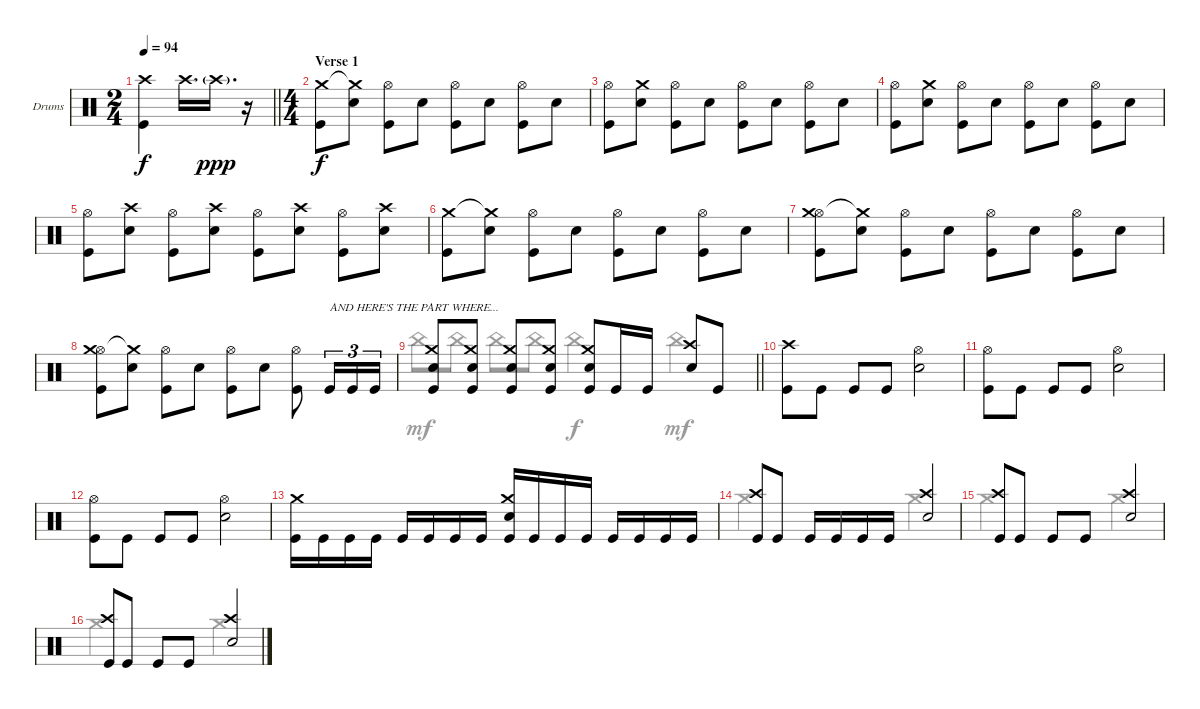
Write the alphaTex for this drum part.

\bracketExtendMode groupsimilarinstruments
\firstSystemTrackNameOrientation horizontal
\otherSystemsTrackNameOrientation horizontal
\track ("Drumkit" "Drums") {instrument percussion}
\staff {score}
\articulation defaults
\voice
\ts (2 4)
\beaming (8 2 2)
\tempo 94
\tempo (193 1 hide)
\clef neutral
\barLineRight lightlight
\ks c
("Crash high (hit)" "Kick (hit)").4{dy f} "Crash high (hit)".16{d} "Crash high (hit)"{g}.16{d dy ppp} r.16 |
\ts (4 4)
\beaming (8 2 2 2 2)
\section ("" "Verse 1")
\tempo (193 hide)
("Crash medium (hit)" "Kick (hit)").8{dy f} ("Crash medium (hit)"{t} "Snare (hit) 2").8 ("Hi-Hat (open)" "Kick (hit)").8 "Snare (hit) 2".8 ("Hi-Hat (open)" "Kick (hit)").8 "Snare (hit) 2".8 ("Hi-Hat (open)" "Kick (hit)").8 "Snare (hit) 2".8 |
("Hi-Hat (open)" "Kick (hit)").8 ("Crash medium (hit)" "Snare (hit) 2").8 ("Hi-Hat (open)" "Kick (hit)").8 "Snare (hit) 2".8 ("Hi-Hat (open)" "Kick (hit)").8 "Snare (hit) 2".8 ("Hi-Hat (open)" "Kick (hit)").8 "Snare (hit) 2".8 |
("Hi-Hat (open)" "Kick (hit)").8 ("Crash medium (hit)" "Snare (hit) 2").8 ("Hi-Hat (open)" "Kick (hit)").8 "Snare (hit) 2".8 ("Hi-Hat (open)" "Kick (hit)").8 "Snare (hit) 2".8 ("Hi-Hat (open)" "Kick (hit)").8 "Snare (hit) 2".8 |
\tempo (188 1 hide)
("Hi-Hat (open)" "Kick (hit)").8 ("Crash high (hit)" "Snare (hit) 2").8 ("Hi-Hat (open)" "Kick (hit)").8 ("Crash high (hit)" "Snare (hit) 2").8 ("Hi-Hat (open)" "Kick (hit)").8 ("Crash high (hit)" "Snare (hit) 2").8 ("Hi-Hat (open)" "Kick (hit)").8 ("Crash high (hit)" "Snare (hit) 2").8 |
\tempo (188 hide)
("Crash medium (hit)" "Kick (hit)").8 ("Crash medium (hit)"{t} "Snare (hit) 2").8 ("Hi-Hat (open)" "Kick (hit)").8 "Snare (hit) 2".8 ("Hi-Hat (open)" "Kick (hit)").8 "Snare (hit) 2".8 ("Hi-Hat (open)" "Kick (hit)").8 "Snare (hit) 2".8 |
("Hi-Hat (open)" "Crash medium (hit)" "Kick (hit)").8 ("Crash medium (hit)"{t} "Snare (hit) 2").8 ("Hi-Hat (open)" "Kick (hit)").8 "Snare (hit) 2".8 ("Hi-Hat (open)" "Kick (hit)").8 "Snare (hit) 2".8 ("Hi-Hat (open)" "Kick (hit)").8 "Snare (hit) 2".8 |
("Hi-Hat (open)" "Crash medium (hit)" "Kick (hit)").8 ("Crash medium (hit)"{t} "Snare (hit) 2").8 ("Hi-Hat (open)" "Kick (hit)").8 "Snare (hit) 2".8 ("Hi-Hat (open)" "Kick (hit)").8 "Snare (hit) 2".8 ("Hi-Hat (open)" "Kick (hit)").8 "Kick (hit)".16{tu (3 2) txt "AND HERE'S THE PART WHERE..."} "Kick (hit)".16{tu (3 2)} "Kick (hit)".16{tu (3 2)} |
\barLineRight lightlight
("Crash medium (hit)" "Snare (hit) 2" "Kick (hit)").8 ("Crash medium (hit)" "Snare (hit) 2" "Kick (hit)").8 ("Crash medium (hit)" "Snare (hit) 2" "Kick (hit)").8 ("Crash medium (hit)" "Snare (hit) 2" "Kick (hit)").8 ("Crash medium (hit)" "Snare (hit) 2" "Kick (hit)").8 "Kick (hit)".16 "Kick (hit)".16 ("Crash high (hit)" "Snare (hit) 2").8 "Kick (hit)".8 |
\section ("" "")
("Crash high (hit)" "Kick (hit)").8 "Kick (hit)".8 "Kick (hit)".8 "Kick (hit)".8 ("Hi-Hat (open)" "Snare (hit) 2").2 |
("Hi-Hat (open)" "Kick (hit)").8 "Kick (hit)".8 "Kick (hit)".8 "Kick (hit)".8 ("Hi-Hat (open)" "Snare (hit) 2").2 |
("Hi-Hat (open)" "Kick (hit)").8 "Kick (hit)".8 "Kick (hit)".8 "Kick (hit)".8 ("Hi-Hat (open)" "Snare (hit) 2").2 |
("Crash medium (hit)" "Kick (hit)").16 "Kick (hit)".16 "Kick (hit)".16 "Kick (hit)".16 "Kick (hit)".16 "Kick (hit)".16 "Kick (hit)".16 "Kick (hit)".16 ("Crash medium (hit)" "Snare (hit) 2" "Kick (hit)").16 "Kick (hit)".16 "Kick (hit)".16 "Kick (hit)".16 "Kick (hit)".16 "Kick (hit)".16 "Kick (hit)".16 "Kick (hit)".16 |
("Crash high (hit)" "Kick (hit)").8 "Kick (hit)".8 "Kick (hit)".16 "Kick (hit)".16 "Kick (hit)".16 "Kick (hit)".16 ("Crash high (hit)" "Snare (hit) 2").2 |
("Crash high (hit)" "Kick (hit)").8 "Kick (hit)".8 "Kick (hit)".8 "Kick (hit)".8 ("Crash high (hit)" "Snare (hit) 2").2 |
("Crash high (hit)" "Kick (hit)").8 "Kick (hit)".8 "Kick (hit)".8 "Kick (hit)".8 ("Crash high (hit)" "Snare (hit) 2").2
\voice
\clef neutral
\ottava regular
\simile none
\barLineRight lightlight
\ks c
|
|
|
|
|
|
|
|
\barLineRight lightlight "China (hit)".8{dy mf} "China (hit)".8 "China (hit)".8 "China (hit)".8 "China (hit)".4{dy f} "China (hit)".4{dy mf}
|
|
|
|
|
"Crash medium (hit)".2 "Crash medium (hit)".2 |
"Crash medium (hit)".2 "Crash medium (hit)".2 |
"Crash medium (hit)".2 "Crash medium (hit)".2
